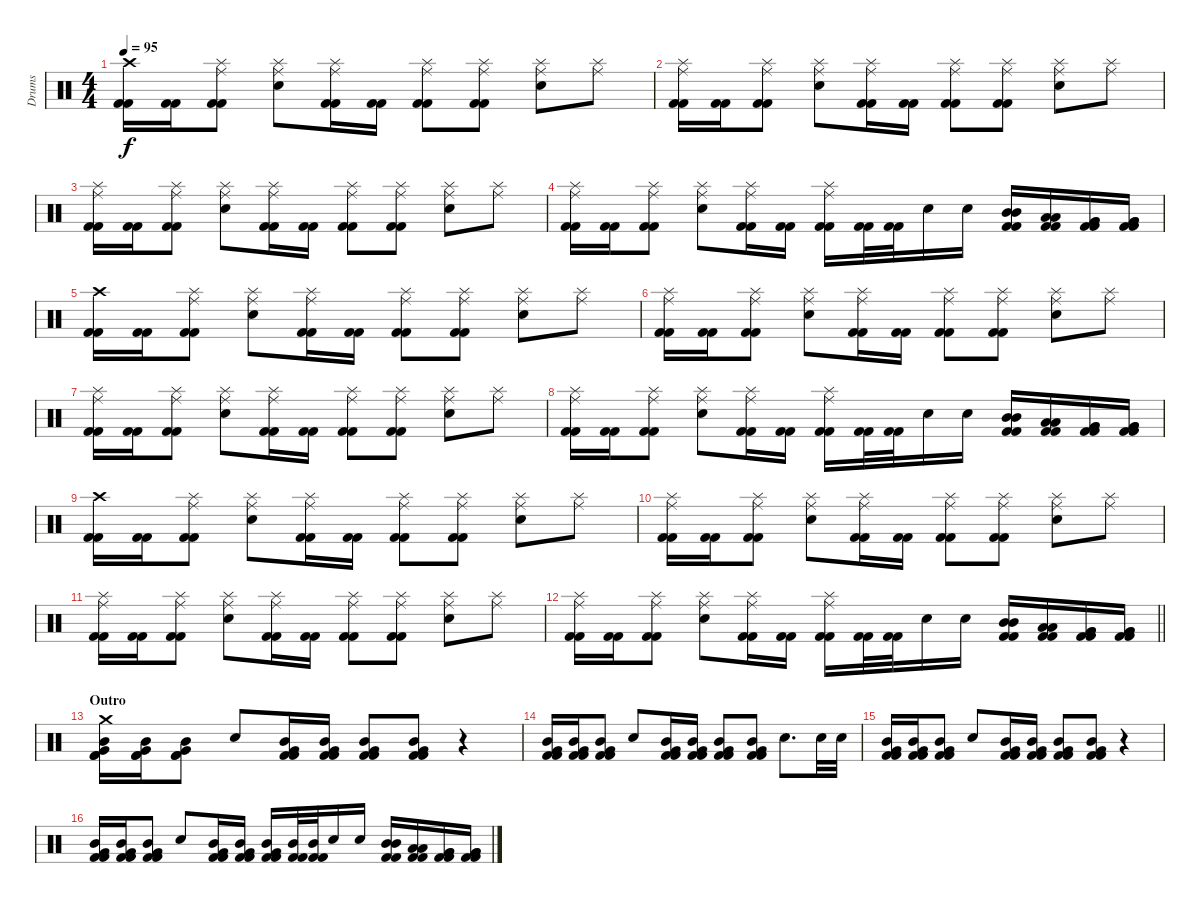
\track ("Drums" "Drums") {instrument percussion}
\staff {score}
\articulation defaults
\ts (4 4)
\tempo 95
\clef neutral
\ks c
("Crash high (hit)" "Kick (hit) 2" "Kick (hit) 2").16{dy f} ("Kick (hit) 2" "Kick (hit) 2").16 ("Ride (middle)" "Splash (hit)" "Kick (hit) 2" "Kick (hit) 2").8 ("Ride (middle)" "Splash (hit)" "Snare (hit) 2").8 ("Ride (middle)" "Splash (hit)" "Kick (hit) 2" "Kick (hit) 2").16 ("Kick (hit) 2" "Kick (hit) 2").16 ("Ride (middle)" "Splash (hit)" "Kick (hit) 2" "Kick (hit) 2").8 ("Ride (middle)" "Splash (hit)" "Kick (hit) 2" "Kick (hit) 2").8 ("Ride (middle)" "Splash (hit)" "Snare (hit) 2").8 ("Ride (middle)" "Splash (hit)").8 |
("Ride (middle)" "Splash (hit)" "Kick (hit) 2" "Kick (hit) 2").16 ("Kick (hit) 2" "Kick (hit) 2").16 ("Ride (middle)" "Splash (hit)" "Kick (hit) 2" "Kick (hit) 2").8 ("Ride (middle)" "Splash (hit)" "Snare (hit) 2").8 ("Ride (middle)" "Splash (hit)" "Kick (hit) 2" "Kick (hit) 2").16 ("Kick (hit) 2" "Kick (hit) 2").16 ("Ride (middle)" "Splash (hit)" "Kick (hit) 2" "Kick (hit) 2").8 ("Ride (middle)" "Splash (hit)" "Kick (hit) 2" "Kick (hit) 2").8 ("Ride (middle)" "Splash (hit)" "Snare (hit) 2").8 ("Ride (middle)" "Splash (hit)").8 |
("Ride (middle)" "Splash (hit)" "Kick (hit) 2" "Kick (hit) 2").16 ("Kick (hit) 2" "Kick (hit) 2").16 ("Ride (middle)" "Splash (hit)" "Kick (hit) 2" "Kick (hit) 2").8 ("Ride (middle)" "Splash (hit)" "Snare (hit) 2").8 ("Ride (middle)" "Splash (hit)" "Kick (hit) 2" "Kick (hit) 2").16 ("Kick (hit) 2" "Kick (hit) 2").16 ("Ride (middle)" "Splash (hit)" "Kick (hit) 2" "Kick (hit) 2").8 ("Ride (middle)" "Splash (hit)" "Kick (hit) 2" "Kick (hit) 2").8 ("Ride (middle)" "Splash (hit)" "Snare (hit) 2").8 ("Ride (middle)" "Splash (hit)").8 |
("Ride (middle)" "Splash (hit)" "Kick (hit) 2" "Kick (hit) 2").16 ("Kick (hit) 2" "Kick (hit) 2").16 ("Ride (middle)" "Splash (hit)" "Kick (hit) 2" "Kick (hit) 2").8 ("Ride (middle)" "Splash (hit)" "Snare (hit) 2").8 ("Ride (middle)" "Splash (hit)" "Kick (hit) 2" "Kick (hit) 2").16 ("Kick (hit) 2" "Kick (hit) 2").16 ("Ride (middle)" "Splash (hit)" "Kick (hit) 2" "Kick (hit) 2").16 ("Kick (hit) 2" "Kick (hit) 2").32 ("Kick (hit) 2" "Kick (hit) 2").32 "Electric Snare (hit)".16 "Electric Snare (hit)".16 ("Mid Tom (hit)" "Mid Tom (hit)" "Kick (hit) 2" "Kick (hit) 2").16 ("Low Tom (hit)" "Low Tom (hit)" "Kick (hit) 2" "Kick (hit) 2").16 ("Very Low Tom (hit)" "Very Low Tom (hit)" "Kick (hit) 2" "Kick (hit) 2").16 ("Very Low Tom (hit)" "Very Low Tom (hit)" "Kick (hit) 2" "Kick (hit) 2").16 |
("Crash high (hit)" "Kick (hit) 2" "Kick (hit) 2").16 ("Kick (hit) 2" "Kick (hit) 2").16 ("Ride (middle)" "Splash (hit)" "Kick (hit) 2" "Kick (hit) 2").8 ("Ride (middle)" "Splash (hit)" "Electric Snare (hit)").8 ("Ride (middle)" "Splash (hit)" "Kick (hit) 2" "Kick (hit) 2").16 ("Kick (hit) 2" "Kick (hit) 2").16 ("Ride (middle)" "Splash (hit)" "Kick (hit) 2" "Kick (hit) 2").8 ("Ride (middle)" "Splash (hit)" "Kick (hit) 2" "Kick (hit) 2").8 ("Ride (middle)" "Splash (hit)" "Electric Snare (hit)").8 ("Ride (middle)" "Splash (hit)").8 |
("Ride (middle)" "Splash (hit)" "Kick (hit) 2" "Kick (hit) 2").16 ("Kick (hit) 2" "Kick (hit) 2").16 ("Ride (middle)" "Splash (hit)" "Kick (hit) 2" "Kick (hit) 2").8 ("Ride (middle)" "Splash (hit)" "Electric Snare (hit)").8 ("Ride (middle)" "Splash (hit)" "Kick (hit) 2" "Kick (hit) 2").16 ("Kick (hit) 2" "Kick (hit) 2").16 ("Ride (middle)" "Splash (hit)" "Kick (hit) 2" "Kick (hit) 2").8 ("Ride (middle)" "Splash (hit)" "Kick (hit) 2" "Kick (hit) 2").8 ("Ride (middle)" "Splash (hit)" "Electric Snare (hit)").8 ("Ride (middle)" "Splash (hit)").8 |
("Ride (middle)" "Splash (hit)" "Kick (hit) 2" "Kick (hit) 2").16 ("Kick (hit) 2" "Kick (hit) 2").16 ("Ride (middle)" "Splash (hit)" "Kick (hit) 2" "Kick (hit) 2").8 ("Ride (middle)" "Splash (hit)" "Electric Snare (hit)").8 ("Ride (middle)" "Splash (hit)" "Kick (hit) 2" "Kick (hit) 2").16 ("Kick (hit) 2" "Kick (hit) 2").16 ("Ride (middle)" "Splash (hit)" "Kick (hit) 2" "Kick (hit) 2").8 ("Ride (middle)" "Splash (hit)" "Kick (hit) 2" "Kick (hit) 2").8 ("Ride (middle)" "Splash (hit)" "Electric Snare (hit)").8 ("Ride (middle)" "Splash (hit)").8 |
("Ride (middle)" "Splash (hit)" "Kick (hit) 2" "Kick (hit) 2").16 ("Kick (hit) 2" "Kick (hit) 2").16 ("Ride (middle)" "Splash (hit)" "Kick (hit) 2" "Kick (hit) 2").8 ("Ride (middle)" "Splash (hit)" "Electric Snare (hit)").8 ("Ride (middle)" "Splash (hit)" "Kick (hit) 2" "Kick (hit) 2").16 ("Kick (hit) 2" "Kick (hit) 2").16 ("Ride (middle)" "Splash (hit)" "Kick (hit) 2" "Kick (hit) 2").16 ("Kick (hit) 2" "Kick (hit) 2").32 ("Kick (hit) 2" "Kick (hit) 2").32 "Electric Snare (hit)".16 "Electric Snare (hit)".16 ("Mid Tom (hit)" "Mid Tom (hit)" "Kick (hit) 2" "Kick (hit) 2").16 ("Low Tom (hit)" "Low Tom (hit)" "Kick (hit) 2" "Kick (hit) 2").16 ("Very Low Tom (hit)" "Very Low Tom (hit)" "Kick (hit) 2" "Kick (hit) 2").16 ("Very Low Tom (hit)" "Very Low Tom (hit)" "Kick (hit) 2" "Kick (hit) 2").16 |
("Crash high (hit)" "Kick (hit) 2" "Kick (hit) 2").16 ("Kick (hit) 2" "Kick (hit) 2").16 ("Ride (middle)" "Splash (hit)" "Kick (hit) 2" "Kick (hit) 2").8 ("Ride (middle)" "Splash (hit)" "Snare (hit) 2").8 ("Ride (middle)" "Splash (hit)" "Kick (hit) 2" "Kick (hit) 2").16 ("Kick (hit) 2" "Kick (hit) 2").16 ("Ride (middle)" "Splash (hit)" "Kick (hit) 2" "Kick (hit) 2").8 ("Ride (middle)" "Splash (hit)" "Kick (hit) 2" "Kick (hit) 2").8 ("Ride (middle)" "Splash (hit)" "Snare (hit) 2").8 ("Ride (middle)" "Splash (hit)").8 |
("Ride (middle)" "Splash (hit)" "Kick (hit) 2" "Kick (hit) 2").16 ("Kick (hit) 2" "Kick (hit) 2").16 ("Ride (middle)" "Splash (hit)" "Kick (hit) 2" "Kick (hit) 2").8 ("Ride (middle)" "Splash (hit)" "Snare (hit) 2").8 ("Ride (middle)" "Splash (hit)" "Kick (hit) 2" "Kick (hit) 2").16 ("Kick (hit) 2" "Kick (hit) 2").16 ("Ride (middle)" "Splash (hit)" "Kick (hit) 2" "Kick (hit) 2").8 ("Ride (middle)" "Splash (hit)" "Kick (hit) 2" "Kick (hit) 2").8 ("Ride (middle)" "Splash (hit)" "Snare (hit) 2").8 ("Ride (middle)" "Splash (hit)").8 |
("Ride (middle)" "Splash (hit)" "Kick (hit) 2" "Kick (hit) 2").16 ("Kick (hit) 2" "Kick (hit) 2").16 ("Ride (middle)" "Splash (hit)" "Kick (hit) 2" "Kick (hit) 2").8 ("Ride (middle)" "Splash (hit)" "Snare (hit) 2").8 ("Ride (middle)" "Splash (hit)" "Kick (hit) 2" "Kick (hit) 2").16 ("Kick (hit) 2" "Kick (hit) 2").16 ("Ride (middle)" "Splash (hit)" "Kick (hit) 2" "Kick (hit) 2").8 ("Ride (middle)" "Splash (hit)" "Kick (hit) 2" "Kick (hit) 2").8 ("Ride (middle)" "Splash (hit)" "Snare (hit) 2").8 ("Ride (middle)" "Splash (hit)").8 |
\barLineRight lightlight
("Ride (middle)" "Splash (hit)" "Kick (hit) 2" "Kick (hit) 2").16 ("Kick (hit) 2" "Kick (hit) 2").16 ("Ride (middle)" "Splash (hit)" "Kick (hit) 2" "Kick (hit) 2").8 ("Ride (middle)" "Splash (hit)" "Snare (hit) 2").8 ("Ride (middle)" "Splash (hit)" "Kick (hit) 2" "Kick (hit) 2").16 ("Kick (hit) 2" "Kick (hit) 2").16 ("Ride (middle)" "Splash (hit)" "Kick (hit) 2" "Kick (hit) 2").16 ("Kick (hit) 2" "Kick (hit) 2").32 ("Kick (hit) 2" "Kick (hit) 2").32 "Electric Snare (hit)".16 "Electric Snare (hit)".16 ("Mid Tom (hit)" "Mid Tom (hit)" "Kick (hit) 2" "Kick (hit) 2").16 ("Low Tom (hit)" "Low Tom (hit)" "Kick (hit) 2" "Kick (hit) 2").16 ("Very Low Tom (hit)" "Very Low Tom (hit)" "Kick (hit) 2" "Kick (hit) 2").16 ("Very Low Tom (hit)" "Very Low Tom (hit)" "Kick (hit) 2" "Kick (hit) 2").16 |
\section ("" "Outro")
("Crash medium (hit)" "Mid Tom (hit)" "Very Low Tom (hit)" "Kick (hit) 2" "Kick (hit) 2").16 ("Mid Tom (hit)" "Very Low Tom (hit)" "Kick (hit) 2" "Kick (hit) 2").16 ("Mid Tom (hit)" "Very Low Tom (hit)" "Kick (hit) 2" "Kick (hit) 2").8 "Electric Snare (hit)".8 ("Mid Tom (hit)" "Very Low Tom (hit)" "Kick (hit) 2" "Kick (hit) 2").16 ("Mid Tom (hit)" "Very Low Tom (hit)" "Kick (hit) 2" "Kick (hit) 2").16 ("Mid Tom (hit)" "Very Low Tom (hit)" "Kick (hit) 2" "Kick (hit) 2").8 ("Mid Tom (hit)" "Very Low Tom (hit)" "Kick (hit) 2" "Kick (hit) 2").8 r.4 |
("Mid Tom (hit)" "Very Low Tom (hit)" "Kick (hit) 2" "Kick (hit) 2").16 ("Mid Tom (hit)" "Very Low Tom (hit)" "Kick (hit) 2" "Kick (hit) 2").16 ("Mid Tom (hit)" "Very Low Tom (hit)" "Kick (hit) 2" "Kick (hit) 2").8 "Electric Snare (hit)".8 ("Mid Tom (hit)" "Very Low Tom (hit)" "Kick (hit) 2" "Kick (hit) 2").16 ("Mid Tom (hit)" "Very Low Tom (hit)" "Kick (hit) 2" "Kick (hit) 2").16 ("Mid Tom (hit)" "Very Low Tom (hit)" "Kick (hit) 2" "Kick (hit) 2").8 ("Mid Tom (hit)" "Very Low Tom (hit)" "Kick (hit) 2" "Kick (hit) 2").8 "Electric Snare (hit)".8{d} "Electric Snare (hit)".32 "Electric Snare (hit)".32 |
("Mid Tom (hit)" "Very Low Tom (hit)" "Kick (hit) 2" "Kick (hit) 2").16 ("Mid Tom (hit)" "Very Low Tom (hit)" "Kick (hit) 2" "Kick (hit) 2").16 ("Mid Tom (hit)" "Very Low Tom (hit)" "Kick (hit) 2" "Kick (hit) 2").8 "Electric Snare (hit)".8 ("Mid Tom (hit)" "Very Low Tom (hit)" "Kick (hit) 2" "Kick (hit) 2").16 ("Mid Tom (hit)" "Very Low Tom (hit)" "Kick (hit) 2" "Kick (hit) 2").16 ("Mid Tom (hit)" "Very Low Tom (hit)" "Kick (hit) 2" "Kick (hit) 2").8 ("Mid Tom (hit)" "Very Low Tom (hit)" "Kick (hit) 2" "Kick (hit) 2").8 r.4 |
("Mid Tom (hit)" "Very Low Tom (hit)" "Kick (hit) 2" "Kick (hit) 2").16 ("Mid Tom (hit)" "Very Low Tom (hit)" "Kick (hit) 2" "Kick (hit) 2").16 ("Mid Tom (hit)" "Very Low Tom (hit)" "Kick (hit) 2" "Kick (hit) 2").8 "Snare (hit) 2".8 ("Mid Tom (hit)" "Very Low Tom (hit)" "Kick (hit) 2" "Kick (hit) 2").16 ("Mid Tom (hit)" "Very Low Tom (hit)" "Kick (hit) 2" "Kick (hit) 2").16 ("Mid Tom (hit)" "Very Low Tom (hit)" "Kick (hit) 2" "Kick (hit) 2").16 ("Mid Tom (hit)" "Kick (hit) 2" "Kick (hit) 2").32 ("Mid Tom (hit)" "Kick (hit) 2" "Kick (hit) 2").32 "Electric Snare (hit)".16 "Electric Snare (hit)".16 ("Mid Tom (hit)" "Mid Tom (hit)" "Kick (hit) 2" "Kick (hit) 2").16 ("Low Tom (hit)" "Low Tom (hit)" "Kick (hit) 2" "Kick (hit) 2").16 ("Very Low Tom (hit)" "Very Low Tom (hit)" "Kick (hit) 2" "Kick (hit) 2").16 ("Very Low Tom (hit)" "Very Low Tom (hit)" "Kick (hit) 2" "Kick (hit) 2").16
